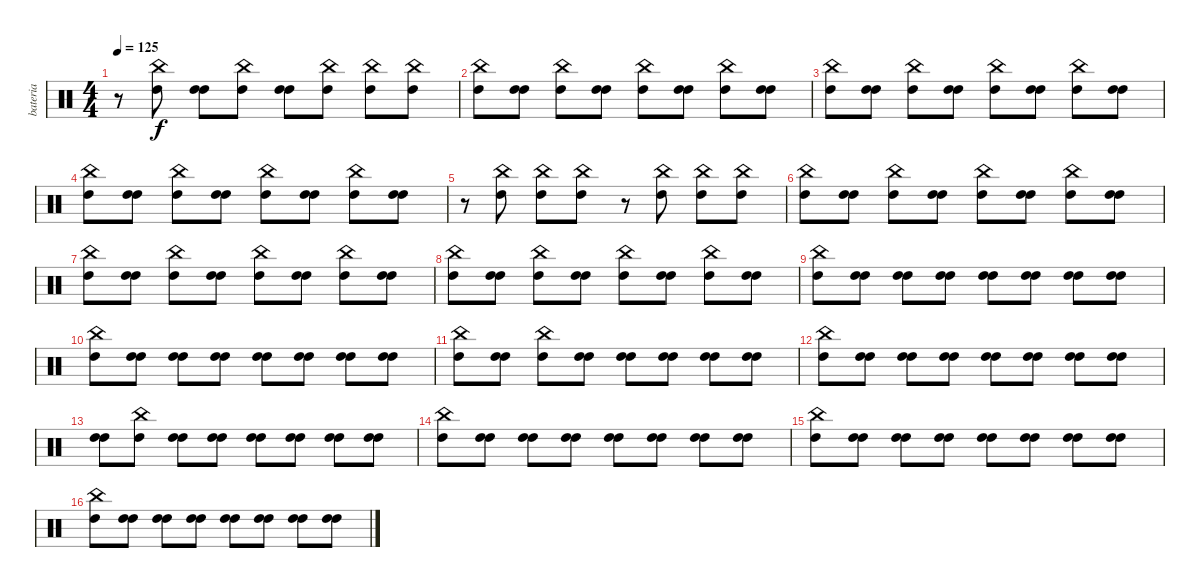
\track ("bateria" "bateria") {instrument percussion}
\staff {score}
\articulation defaults
\ts (4 4)
\tempo 125
\clef neutral
\ks c
r.8{dy f} ("China (hit)" "High Tom (hit)").8 ("High Tom (hit)" "High Tom (hit)").8 ("China (hit)" "High Tom (hit)").8 ("High Tom (hit)" "High Tom (hit)").8 ("China (hit)" "High Tom (hit)").8 ("China (hit)" "High Tom (hit)").8 ("China (hit)" "High Tom (hit)").8 |
("China (hit)" "High Tom (hit)").8 ("High Tom (hit)" "High Tom (hit)").8 ("China (hit)" "High Tom (hit)").8 ("High Tom (hit)" "High Tom (hit)").8 ("China (hit)" "High Tom (hit)").8 ("High Tom (hit)" "High Tom (hit)").8 ("China (hit)" "High Tom (hit)").8 ("High Tom (hit)" "High Tom (hit)").8 |
("China (hit)" "High Tom (hit)").8 ("High Tom (hit)" "High Tom (hit)").8 ("China (hit)" "High Tom (hit)").8 ("High Tom (hit)" "High Tom (hit)").8 ("China (hit)" "High Tom (hit)").8 ("High Tom (hit)" "High Tom (hit)").8 ("China (hit)" "High Tom (hit)").8 ("High Tom (hit)" "High Tom (hit)").8 |
("China (hit)" "High Tom (hit)").8 ("High Tom (hit)" "High Tom (hit)").8 ("China (hit)" "High Tom (hit)").8 ("High Tom (hit)" "High Tom (hit)").8 ("China (hit)" "High Tom (hit)").8 ("High Tom (hit)" "High Tom (hit)").8 ("China (hit)" "High Tom (hit)").8 ("High Tom (hit)" "High Tom (hit)").8 |
r.8 ("China (hit)" "High Tom (hit)").8 ("China (hit)" "High Tom (hit)").8 ("China (hit)" "High Tom (hit)").8 r.8 ("China (hit)" "High Tom (hit)").8 ("China (hit)" "High Tom (hit)").8 ("China (hit)" "High Tom (hit)").8 |
("China (hit)" "High Tom (hit)").8 ("High Tom (hit)" "High Tom (hit)").8 ("China (hit)" "High Tom (hit)").8 ("High Tom (hit)" "High Tom (hit)").8 ("China (hit)" "High Tom (hit)").8 ("High Tom (hit)" "High Tom (hit)").8 ("China (hit)" "High Tom (hit)").8 ("High Tom (hit)" "High Tom (hit)").8 |
("China (hit)" "High Tom (hit)").8 ("High Tom (hit)" "High Tom (hit)").8 ("China (hit)" "High Tom (hit)").8 ("High Tom (hit)" "High Tom (hit)").8 ("China (hit)" "High Tom (hit)").8 ("High Tom (hit)" "High Tom (hit)").8 ("China (hit)" "High Tom (hit)").8 ("High Tom (hit)" "High Tom (hit)").8 |
("China (hit)" "High Tom (hit)").8 ("High Tom (hit)" "High Tom (hit)").8 ("China (hit)" "High Tom (hit)").8 ("High Tom (hit)" "High Tom (hit)").8 ("China (hit)" "High Tom (hit)").8 ("High Tom (hit)" "High Tom (hit)").8 ("China (hit)" "High Tom (hit)").8 ("High Tom (hit)" "High Tom (hit)").8 |
("China (hit)" "High Tom (hit)").8 ("High Tom (hit)" "High Tom (hit)").8 ("High Tom (hit)" "High Tom (hit)").8 ("High Tom (hit)" "High Tom (hit)").8 ("High Tom (hit)" "High Tom (hit)").8 ("High Tom (hit)" "High Tom (hit)").8 ("High Tom (hit)" "High Tom (hit)").8 ("High Tom (hit)" "High Tom (hit)").8 |
("China (hit)" "High Tom (hit)").8 ("High Tom (hit)" "High Tom (hit)").8 ("High Tom (hit)" "High Tom (hit)").8 ("High Tom (hit)" "High Tom (hit)").8 ("High Tom (hit)" "High Tom (hit)").8 ("High Tom (hit)" "High Tom (hit)").8 ("High Tom (hit)" "High Tom (hit)").8 ("High Tom (hit)" "High Tom (hit)").8 |
("China (hit)" "High Tom (hit)").8 ("High Tom (hit)" "High Tom (hit)").8 ("China (hit)" "High Tom (hit)").8 ("High Tom (hit)" "High Tom (hit)").8 ("High Tom (hit)" "High Tom (hit)").8 ("High Tom (hit)" "High Tom (hit)").8 ("High Tom (hit)" "High Tom (hit)").8 ("High Tom (hit)" "High Tom (hit)").8 |
("China (hit)" "High Tom (hit)").8 ("High Tom (hit)" "High Tom (hit)").8 ("High Tom (hit)" "High Tom (hit)").8 ("High Tom (hit)" "High Tom (hit)").8 ("High Tom (hit)" "High Tom (hit)").8 ("High Tom (hit)" "High Tom (hit)").8 ("High Tom (hit)" "High Tom (hit)").8 ("High Tom (hit)" "High Tom (hit)").8 |
("High Tom (hit)" "High Tom (hit)").8 ("China (hit)" "High Tom (hit)").8 ("High Tom (hit)" "High Tom (hit)").8 ("High Tom (hit)" "High Tom (hit)").8 ("High Tom (hit)" "High Tom (hit)").8 ("High Tom (hit)" "High Tom (hit)").8 ("High Tom (hit)" "High Tom (hit)").8 ("High Tom (hit)" "High Tom (hit)").8 |
("China (hit)" "High Tom (hit)").8 ("High Tom (hit)" "High Tom (hit)").8 ("High Tom (hit)" "High Tom (hit)").8 ("High Tom (hit)" "High Tom (hit)").8 ("High Tom (hit)" "High Tom (hit)").8 ("High Tom (hit)" "High Tom (hit)").8 ("High Tom (hit)" "High Tom (hit)").8 ("High Tom (hit)" "High Tom (hit)").8 |
("China (hit)" "High Tom (hit)").8 ("High Tom (hit)" "High Tom (hit)").8 ("High Tom (hit)" "High Tom (hit)").8 ("High Tom (hit)" "High Tom (hit)").8 ("High Tom (hit)" "High Tom (hit)").8 ("High Tom (hit)" "High Tom (hit)").8 ("High Tom (hit)" "High Tom (hit)").8 ("High Tom (hit)" "High Tom (hit)").8 |
("China (hit)" "High Tom (hit)").8 ("High Tom (hit)" "High Tom (hit)").8 ("High Tom (hit)" "High Tom (hit)").8 ("High Tom (hit)" "High Tom (hit)").8 ("High Tom (hit)" "High Tom (hit)").8 ("High Tom (hit)" "High Tom (hit)").8 ("High Tom (hit)" "High Tom (hit)").8 ("High Tom (hit)" "High Tom (hit)").8
